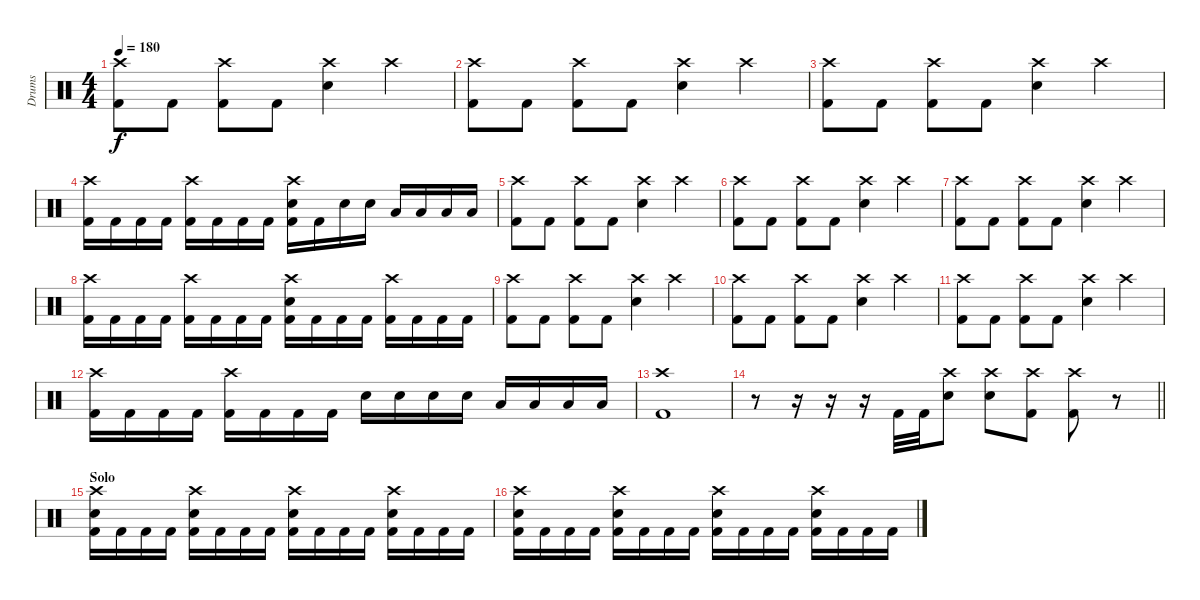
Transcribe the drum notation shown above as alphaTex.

\track ("Drums" "Drums") {instrument percussion}
\staff {score}
\articulation defaults
\ts (4 4)
\tempo 180
\clef neutral
\ks c
("Crash high (hit)" "Kick (hit) 2").8{dy f} "Kick (hit) 2".8 ("Crash high (hit)" "Kick (hit) 2").8 "Kick (hit) 2".8 ("Crash high (hit)" "Electric Snare (hit)").4 "Crash high (hit)".4 |
("Crash high (hit)" "Kick (hit) 2").8 "Kick (hit) 2".8 ("Crash high (hit)" "Kick (hit) 2").8 "Kick (hit) 2".8 ("Crash high (hit)" "Electric Snare (hit)").4 "Crash high (hit)".4 |
("Crash high (hit)" "Kick (hit) 2").8 "Kick (hit) 2".8 ("Crash high (hit)" "Kick (hit) 2").8 "Kick (hit) 2".8 ("Crash high (hit)" "Electric Snare (hit)").4 "Crash high (hit)".4 |
("Crash high (hit)" "Kick (hit) 2").16 "Kick (hit) 2".16 "Kick (hit) 2".16 "Kick (hit) 2".16 ("Crash high (hit)" "Kick (hit) 2").16 "Kick (hit) 2".16 "Kick (hit) 2".16 "Kick (hit) 2".16 ("Crash high (hit)" "Electric Snare (hit)" "Kick (hit) 2").16 "Kick (hit) 2".16 "Electric Snare (hit)".16 "Electric Snare (hit)".16 "Low Tom (hit)".16 "Low Tom (hit)".16 "Low Tom (hit)".16 "Low Tom (hit)".16 |
("Crash high (hit)" "Kick (hit) 2").8 "Kick (hit) 2".8 ("Crash high (hit)" "Kick (hit) 2").8 "Kick (hit) 2".8 ("Crash high (hit)" "Electric Snare (hit)").4 "Crash high (hit)".4 |
("Crash high (hit)" "Kick (hit) 2").8 "Kick (hit) 2".8 ("Crash high (hit)" "Kick (hit) 2").8 "Kick (hit) 2".8 ("Crash high (hit)" "Electric Snare (hit)").4 "Crash high (hit)".4 |
("Crash high (hit)" "Kick (hit) 2").8 "Kick (hit) 2".8 ("Crash high (hit)" "Kick (hit) 2").8 "Kick (hit) 2".8 ("Crash high (hit)" "Electric Snare (hit)").4 "Crash high (hit)".4 |
("Crash high (hit)" "Kick (hit) 2").16 "Kick (hit) 2".16 "Kick (hit) 2".16 "Kick (hit) 2".16 ("Crash high (hit)" "Kick (hit) 2").16 "Kick (hit) 2".16 "Kick (hit) 2".16 "Kick (hit) 2".16 ("Crash high (hit)" "Electric Snare (hit)" "Kick (hit) 2").16 "Kick (hit) 2".16 "Kick (hit) 2".16 "Kick (hit) 2".16 ("Crash high (hit)" "Kick (hit) 2").16 "Kick (hit) 2".16 "Kick (hit) 2".16 "Kick (hit) 2".16 |
("Crash high (hit)" "Kick (hit) 2").8 "Kick (hit) 2".8 ("Crash high (hit)" "Kick (hit) 2").8 "Kick (hit) 2".8 ("Crash high (hit)" "Electric Snare (hit)").4 "Crash high (hit)".4 |
("Crash high (hit)" "Kick (hit) 2").8 "Kick (hit) 2".8 ("Crash high (hit)" "Kick (hit) 2").8 "Kick (hit) 2".8 ("Crash high (hit)" "Electric Snare (hit)").4 "Crash high (hit)".4 |
("Crash high (hit)" "Kick (hit) 2").8 "Kick (hit) 2".8 ("Crash high (hit)" "Kick (hit) 2").8 "Kick (hit) 2".8 ("Crash high (hit)" "Electric Snare (hit)").4 "Crash high (hit)".4 |
("Crash high (hit)" "Kick (hit) 2").16 "Kick (hit) 2".16 "Kick (hit) 2".16 "Kick (hit) 2".16 ("Crash high (hit)" "Kick (hit) 2").16 "Kick (hit) 2".16 "Kick (hit) 2".16 "Kick (hit) 2".16 "Electric Snare (hit)".16 "Electric Snare (hit)".16 "Electric Snare (hit)".16 "Electric Snare (hit)".16 "Low Tom (hit)".16 "Low Tom (hit)".16 "Low Tom (hit)".16 "Low Tom (hit)".16 |
("Crash high (hit)" "Kick (hit) 2").1 |
\barLineRight lightlight
r.8 r.16 r.16 r.16 "Kick (hit) 2".32 "Kick (hit) 2".32 ("Crash high (hit)" "Electric Snare (hit)").8 ("Crash high (hit)" "Electric Snare (hit)").8 ("Crash high (hit)" "Kick (hit) 2").8 ("Crash high (hit)" "Kick (hit) 2").8 r.8 |
\section ("" "Solo")
("Crash high (hit)" "Electric Snare (hit)" "Kick (hit) 2").16 "Kick (hit) 2".16 "Kick (hit) 2".16 "Kick (hit) 2".16 ("Crash high (hit)" "Electric Snare (hit)" "Kick (hit) 2").16 "Kick (hit) 2".16 "Kick (hit) 2".16 "Kick (hit) 2".16 ("Crash high (hit)" "Electric Snare (hit)" "Kick (hit) 2").16 "Kick (hit) 2".16 "Kick (hit) 2".16 "Kick (hit) 2".16 ("Crash high (hit)" "Electric Snare (hit)" "Kick (hit) 2").16 "Kick (hit) 2".16 "Kick (hit) 2".16 "Kick (hit) 2".16 |
("Crash high (hit)" "Electric Snare (hit)" "Kick (hit) 2").16 "Kick (hit) 2".16 "Kick (hit) 2".16 "Kick (hit) 2".16 ("Crash high (hit)" "Electric Snare (hit)" "Kick (hit) 2").16 "Kick (hit) 2".16 "Kick (hit) 2".16 "Kick (hit) 2".16 ("Crash high (hit)" "Electric Snare (hit)" "Kick (hit) 2").16 "Kick (hit) 2".16 "Kick (hit) 2".16 "Kick (hit) 2".16 ("Crash high (hit)" "Electric Snare (hit)" "Kick (hit) 2").16 "Kick (hit) 2".16 "Kick (hit) 2".16 "Kick (hit) 2".16
